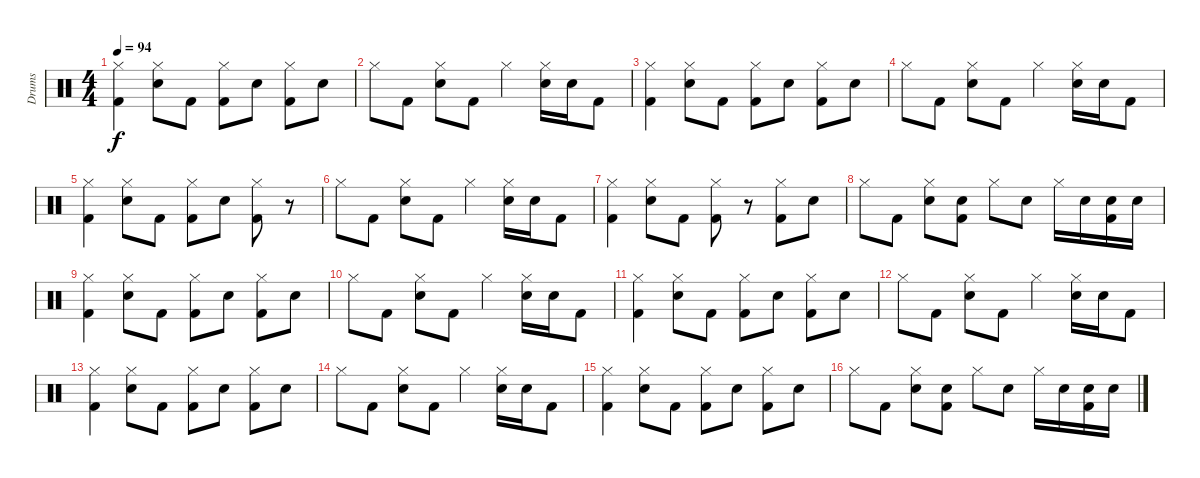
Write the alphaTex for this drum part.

\track ("Drums" "Drums") {instrument percussion}
\staff {score}
\articulation defaults
\ts (4 4)
\tempo 94
\clef neutral
\ks c
("Hi-Hat (closed)" "Kick (hit) 2").4{dy f} ("Hi-Hat (closed)" "Snare (hit) 2").8 "Kick (hit) 2".8 ("Hi-Hat (closed)" "Kick (hit) 2").8 "Snare (hit) 2".8 ("Hi-Hat (closed)" "Kick (hit) 2").8 "Snare (hit) 2".8 |
"Hi-Hat (closed)".8 "Kick (hit) 2".8 ("Hi-Hat (closed)" "Snare (hit) 2").8 "Kick (hit) 2".8 "Hi-Hat (closed)".4 ("Hi-Hat (closed)" "Snare (hit) 2").16 "Snare (hit) 2".16 "Kick (hit) 2".8 |
("Hi-Hat (closed)" "Kick (hit) 2").4 ("Hi-Hat (closed)" "Snare (hit) 2").8 "Kick (hit) 2".8 ("Hi-Hat (closed)" "Kick (hit) 2").8 "Snare (hit) 2".8 ("Hi-Hat (closed)" "Kick (hit) 2").8 "Snare (hit) 2".8 |
"Hi-Hat (closed)".8 "Kick (hit) 2".8 ("Hi-Hat (closed)" "Snare (hit) 2").8 "Kick (hit) 2".8 "Hi-Hat (closed)".4 ("Hi-Hat (closed)" "Snare (hit) 2").16 "Snare (hit) 2".16 "Kick (hit) 2".8 |
("Hi-Hat (closed)" "Kick (hit) 2").4 ("Hi-Hat (closed)" "Snare (hit) 2").8 "Kick (hit) 2".8 ("Hi-Hat (closed)" "Kick (hit) 2").8 "Snare (hit) 2".8 ("Hi-Hat (closed)" "Kick (hit) 2").8 r.8 |
"Hi-Hat (closed)".8 "Kick (hit) 2".8 ("Hi-Hat (closed)" "Snare (hit) 2").8 "Kick (hit) 2".8 "Hi-Hat (closed)".4 ("Hi-Hat (closed)" "Snare (hit) 2").16 "Snare (hit) 2".16 "Kick (hit) 2".8 |
("Hi-Hat (closed)" "Kick (hit) 2").4 ("Hi-Hat (closed)" "Snare (hit) 2").8 "Kick (hit) 2".8 ("Hi-Hat (closed)" "Kick (hit) 2").8 r.8 ("Hi-Hat (closed)" "Kick (hit) 2").8 "Snare (hit) 2".8 |
"Hi-Hat (closed)".8 "Kick (hit) 2".8 ("Hi-Hat (closed)" "Snare (hit) 2").8 ("Snare (hit) 2" "Kick (hit) 2").8 "Hi-Hat (closed)".8 "Snare (hit) 2".8 "Hi-Hat (closed)".16 "Snare (hit) 2".16 ("Snare (hit) 2" "Kick (hit) 2").16 "Snare (hit) 2".16 |
("Hi-Hat (closed)" "Kick (hit) 2").4 ("Hi-Hat (closed)" "Snare (hit) 2").8 "Kick (hit) 2".8 ("Hi-Hat (closed)" "Kick (hit) 2").8 "Snare (hit) 2".8 ("Hi-Hat (closed)" "Kick (hit) 2").8 "Snare (hit) 2".8 |
"Hi-Hat (closed)".8 "Kick (hit) 2".8 ("Hi-Hat (closed)" "Snare (hit) 2").8 "Kick (hit) 2".8 "Hi-Hat (closed)".4 ("Hi-Hat (closed)" "Snare (hit) 2").16 "Snare (hit) 2".16 "Kick (hit) 2".8 |
("Hi-Hat (closed)" "Kick (hit) 2").4 ("Hi-Hat (closed)" "Snare (hit) 2").8 "Kick (hit) 2".8 ("Hi-Hat (closed)" "Kick (hit) 2").8 "Snare (hit) 2".8 ("Hi-Hat (closed)" "Kick (hit) 2").8 "Snare (hit) 2".8 |
"Hi-Hat (closed)".8 "Kick (hit) 2".8 ("Hi-Hat (closed)" "Snare (hit) 2").8 "Kick (hit) 2".8 "Hi-Hat (closed)".4 ("Hi-Hat (closed)" "Snare (hit) 2").16 "Snare (hit) 2".16 "Kick (hit) 2".8 |
("Hi-Hat (closed)" "Kick (hit) 2").4 ("Hi-Hat (closed)" "Snare (hit) 2").8 "Kick (hit) 2".8 ("Hi-Hat (closed)" "Kick (hit) 2").8 "Snare (hit) 2".8 ("Hi-Hat (closed)" "Kick (hit) 2").8 "Snare (hit) 2".8 |
"Hi-Hat (closed)".8 "Kick (hit) 2".8 ("Hi-Hat (closed)" "Snare (hit) 2").8 "Kick (hit) 2".8 "Hi-Hat (closed)".4 ("Hi-Hat (closed)" "Snare (hit) 2").16 "Snare (hit) 2".16 "Kick (hit) 2".8 |
("Hi-Hat (closed)" "Kick (hit) 2").4 ("Hi-Hat (closed)" "Snare (hit) 2").8 "Kick (hit) 2".8 ("Hi-Hat (closed)" "Kick (hit) 2").8 "Snare (hit) 2".8 ("Hi-Hat (closed)" "Kick (hit) 2").8 "Snare (hit) 2".8 |
"Hi-Hat (closed)".8 "Kick (hit) 2".8 ("Hi-Hat (closed)" "Snare (hit) 2").8 ("Snare (hit) 2" "Kick (hit) 2").8 "Hi-Hat (closed)".8 "Snare (hit) 2".8 "Hi-Hat (closed)".16 "Snare (hit) 2".16 ("Snare (hit) 2" "Kick (hit) 2").16 "Snare (hit) 2".16
